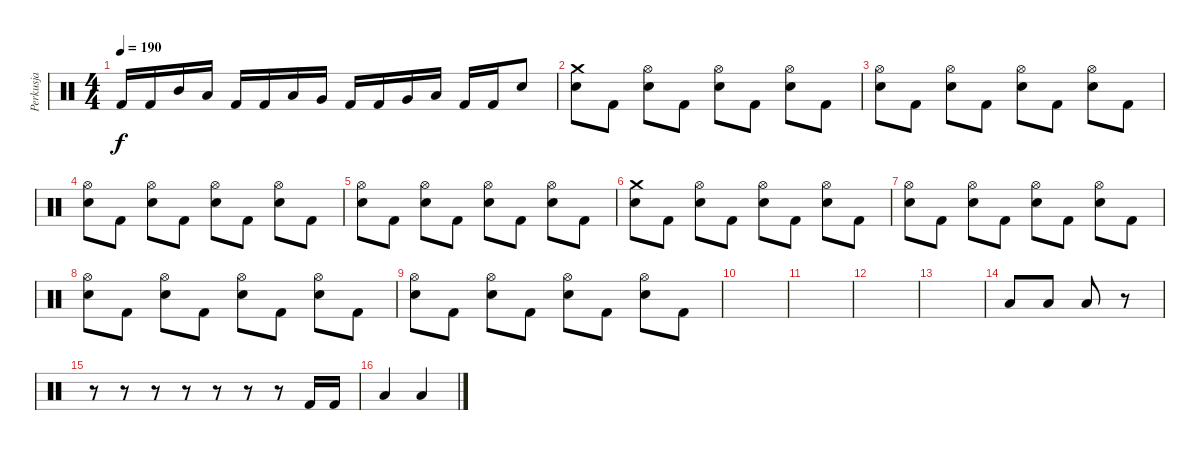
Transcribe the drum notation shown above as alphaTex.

\track ("Perkusja" "Perkusja") {instrument percussion}
\staff {score}
\articulation defaults
\ts (4 4)
\tempo 190
\clef neutral
\ks c "Kick (hit) 2".16{dy f} "Kick (hit) 2".16 "Mid Tom (hit)".16 "Low Tom (hit)".16 "Kick (hit) 2".16 "Kick (hit) 2".16 "Low Tom (hit)".16 "Very Low Tom (hit)".16 "Kick (hit) 2".16 "Kick (hit) 2".16 "Very Low Tom (hit)".16 "Low Floor Tom (hit)".16 "Kick (hit) 2".16 "Kick (hit) 2".16 "Electric Snare (hit)".8
|
("Crash medium (hit)" "Electric Snare (hit)").8 "Kick (hit) 2".8 ("Hi-Hat (open)" "Electric Snare (hit)").8 "Kick (hit) 2".8 ("Hi-Hat (open)" "Electric Snare (hit)").8 "Kick (hit) 2".8 ("Hi-Hat (open)" "Electric Snare (hit)").8 "Kick (hit) 2".8 |
("Hi-Hat (open)" "Electric Snare (hit)").8 "Kick (hit) 2".8 ("Hi-Hat (open)" "Electric Snare (hit)").8 "Kick (hit) 2".8 ("Hi-Hat (open)" "Electric Snare (hit)").8 "Kick (hit) 2".8 ("Hi-Hat (open)" "Electric Snare (hit)").8 "Kick (hit) 2".8 |
("Hi-Hat (open)" "Electric Snare (hit)").8 "Kick (hit) 2".8 ("Hi-Hat (open)" "Electric Snare (hit)").8 "Kick (hit) 2".8 ("Hi-Hat (open)" "Electric Snare (hit)").8 "Kick (hit) 2".8 ("Hi-Hat (open)" "Electric Snare (hit)").8 "Kick (hit) 2".8 |
("Hi-Hat (open)" "Electric Snare (hit)").8 "Kick (hit) 2".8 ("Hi-Hat (open)" "Electric Snare (hit)").8 "Kick (hit) 2".8 ("Hi-Hat (open)" "Electric Snare (hit)").8 "Kick (hit) 2".8 ("Hi-Hat (open)" "Electric Snare (hit)").8 "Kick (hit) 2".8 |
("Crash medium (hit)" "Electric Snare (hit)").8 "Kick (hit) 2".8 ("Hi-Hat (open)" "Electric Snare (hit)").8 "Kick (hit) 2".8 ("Hi-Hat (open)" "Electric Snare (hit)").8 "Kick (hit) 2".8 ("Hi-Hat (open)" "Electric Snare (hit)").8 "Kick (hit) 2".8 |
("Hi-Hat (open)" "Electric Snare (hit)").8 "Kick (hit) 2".8 ("Hi-Hat (open)" "Electric Snare (hit)").8 "Kick (hit) 2".8 ("Hi-Hat (open)" "Electric Snare (hit)").8 "Kick (hit) 2".8 ("Hi-Hat (open)" "Electric Snare (hit)").8 "Kick (hit) 2".8 |
("Hi-Hat (open)" "Electric Snare (hit)").8 "Kick (hit) 2".8 ("Hi-Hat (open)" "Electric Snare (hit)").8 "Kick (hit) 2".8 ("Hi-Hat (open)" "Electric Snare (hit)").8 "Kick (hit) 2".8 ("Hi-Hat (open)" "Electric Snare (hit)").8 "Kick (hit) 2".8 |
("Hi-Hat (open)" "Electric Snare (hit)").8 "Kick (hit) 2".8 ("Hi-Hat (open)" "Electric Snare (hit)").8 "Kick (hit) 2".8 ("Hi-Hat (open)" "Electric Snare (hit)").8 "Kick (hit) 2".8 ("Hi-Hat (open)" "Electric Snare (hit)").8 "Kick (hit) 2".8 |
|
|
|
|
"Low Floor Tom (hit)".8 "Low Floor Tom (hit)".8 "Low Floor Tom (hit)".8 r.8 |
r.8 r.8 r.8 r.8 r.8 r.8 r.8 "Kick (hit) 2".16 "Kick (hit) 2".16 |
"Low Floor Tom (hit)".4 "Low Floor Tom (hit)".4
